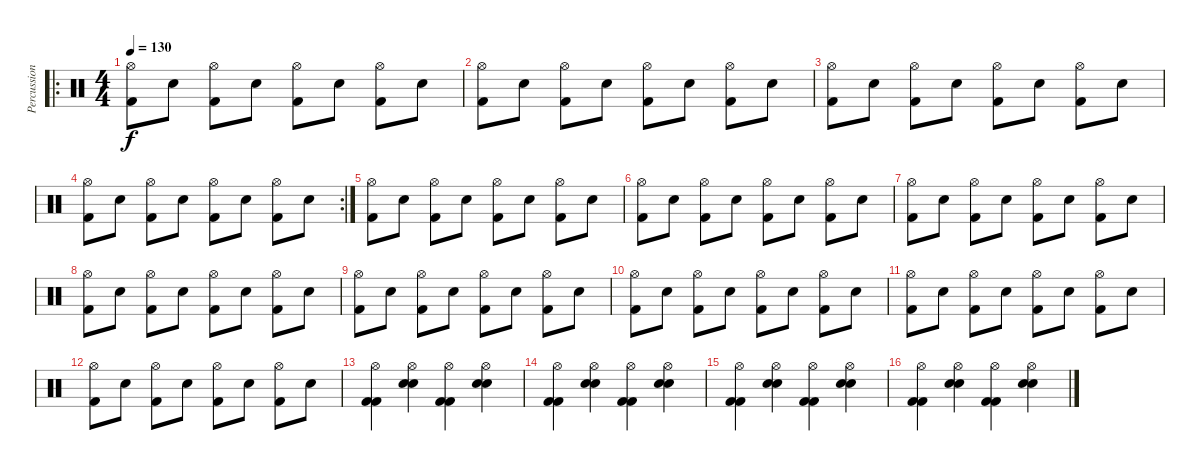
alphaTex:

\track ("Percussion" "Percussion") {instrument percussion}
\staff {score}
\articulation defaults
\ro
\ts (4 4)
\tempo 130
\clef neutral
\ks c
("Hi-Hat (open)" "Kick (hit) 2").8{dy f} "Snare (hit) 2".8 ("Hi-Hat (open)" "Kick (hit) 2").8 "Snare (hit) 2".8 ("Hi-Hat (open)" "Kick (hit) 2").8 "Snare (hit) 2".8 ("Hi-Hat (open)" "Kick (hit) 2").8 "Snare (hit) 2".8 |
("Hi-Hat (open)" "Kick (hit) 2").8 "Snare (hit) 2".8 ("Hi-Hat (open)" "Kick (hit) 2").8 "Snare (hit) 2".8 ("Hi-Hat (open)" "Kick (hit) 2").8 "Snare (hit) 2".8 ("Hi-Hat (open)" "Kick (hit) 2").8 "Snare (hit) 2".8 |
("Hi-Hat (open)" "Kick (hit) 2").8 "Snare (hit) 2".8 ("Hi-Hat (open)" "Kick (hit) 2").8 "Snare (hit) 2".8 ("Hi-Hat (open)" "Kick (hit) 2").8 "Snare (hit) 2".8 ("Hi-Hat (open)" "Kick (hit) 2").8 "Snare (hit) 2".8 |
\rc 2
("Hi-Hat (open)" "Kick (hit) 2").8 "Snare (hit) 2".8 ("Hi-Hat (open)" "Kick (hit) 2").8 "Snare (hit) 2".8 ("Hi-Hat (open)" "Kick (hit) 2").8 "Snare (hit) 2".8 ("Hi-Hat (open)" "Kick (hit) 2").8 "Snare (hit) 2".8 |
("Hi-Hat (open)" "Kick (hit) 2").8 "Snare (hit) 2".8 ("Hi-Hat (open)" "Kick (hit) 2").8 "Snare (hit) 2".8 ("Hi-Hat (open)" "Kick (hit) 2").8 "Snare (hit) 2".8 ("Hi-Hat (open)" "Kick (hit) 2").8 "Snare (hit) 2".8 |
("Hi-Hat (open)" "Kick (hit) 2").8 "Snare (hit) 2".8 ("Hi-Hat (open)" "Kick (hit) 2").8 "Snare (hit) 2".8 ("Hi-Hat (open)" "Kick (hit) 2").8 "Snare (hit) 2".8 ("Hi-Hat (open)" "Kick (hit) 2").8 "Snare (hit) 2".8 |
("Hi-Hat (open)" "Kick (hit) 2").8 "Snare (hit) 2".8 ("Hi-Hat (open)" "Kick (hit) 2").8 "Snare (hit) 2".8 ("Hi-Hat (open)" "Kick (hit) 2").8 "Snare (hit) 2".8 ("Hi-Hat (open)" "Kick (hit) 2").8 "Snare (hit) 2".8 |
("Hi-Hat (open)" "Kick (hit) 2").8 "Snare (hit) 2".8 ("Hi-Hat (open)" "Kick (hit) 2").8 "Snare (hit) 2".8 ("Hi-Hat (open)" "Kick (hit) 2").8 "Snare (hit) 2".8 ("Hi-Hat (open)" "Kick (hit) 2").8 "Snare (hit) 2".8 |
("Hi-Hat (open)" "Kick (hit) 2").8 "Snare (hit) 2".8 ("Hi-Hat (open)" "Kick (hit) 2").8 "Snare (hit) 2".8 ("Hi-Hat (open)" "Kick (hit) 2").8 "Snare (hit) 2".8 ("Hi-Hat (open)" "Kick (hit) 2").8 "Snare (hit) 2".8 |
("Hi-Hat (open)" "Kick (hit) 2").8 "Snare (hit) 2".8 ("Hi-Hat (open)" "Kick (hit) 2").8 "Snare (hit) 2".8 ("Hi-Hat (open)" "Kick (hit) 2").8 "Snare (hit) 2".8 ("Hi-Hat (open)" "Kick (hit) 2").8 "Snare (hit) 2".8 |
("Hi-Hat (open)" "Kick (hit) 2").8 "Snare (hit) 2".8 ("Hi-Hat (open)" "Kick (hit) 2").8 "Snare (hit) 2".8 ("Hi-Hat (open)" "Kick (hit) 2").8 "Snare (hit) 2".8 ("Hi-Hat (open)" "Kick (hit) 2").8 "Snare (hit) 2".8 |
("Hi-Hat (open)" "Kick (hit) 2").8 "Snare (hit) 2".8 ("Hi-Hat (open)" "Kick (hit) 2").8 "Snare (hit) 2".8 ("Hi-Hat (open)" "Kick (hit) 2").8 "Snare (hit) 2".8 ("Hi-Hat (open)" "Kick (hit) 2").8 "Snare (hit) 2".8 |
("Hi-Hat (open)" "Kick (hit) 2" "Kick (hit) 2").4 ("Hi-Hat (open)" "Snare (hit) 2" "Snare (hit) 2").4 ("Hi-Hat (open)" "Kick (hit) 2" "Kick (hit) 2").4 ("Hi-Hat (open)" "Snare (hit) 2" "Snare (hit) 2").4 |
("Hi-Hat (open)" "Kick (hit) 2" "Kick (hit) 2").4 ("Hi-Hat (open)" "Snare (hit) 2" "Snare (hit) 2").4 ("Hi-Hat (open)" "Kick (hit) 2" "Kick (hit) 2").4 ("Hi-Hat (open)" "Snare (hit) 2" "Snare (hit) 2").4 |
("Hi-Hat (open)" "Kick (hit) 2" "Kick (hit) 2").4 ("Hi-Hat (open)" "Snare (hit) 2" "Snare (hit) 2").4 ("Hi-Hat (open)" "Kick (hit) 2" "Kick (hit) 2").4 ("Hi-Hat (open)" "Snare (hit) 2" "Snare (hit) 2").4 |
("Hi-Hat (open)" "Kick (hit) 2" "Kick (hit) 2").4 ("Hi-Hat (open)" "Snare (hit) 2" "Snare (hit) 2").4 ("Hi-Hat (open)" "Kick (hit) 2" "Kick (hit) 2").4 ("Hi-Hat (open)" "Snare (hit) 2" "Snare (hit) 2").4
